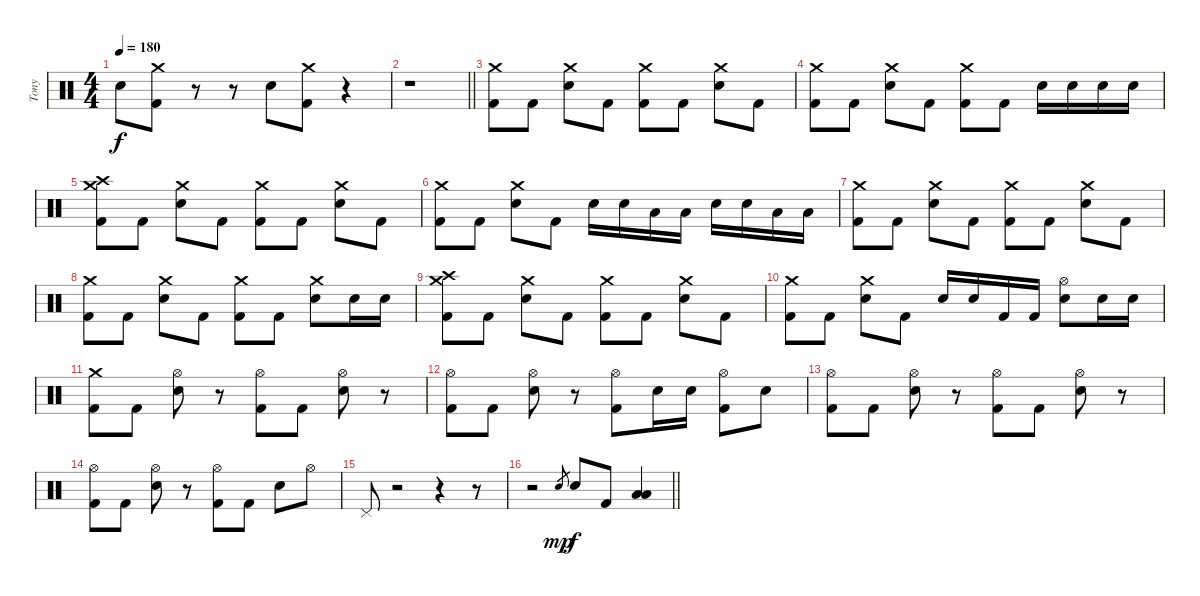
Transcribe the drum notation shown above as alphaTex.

\track ("Tony" "Tony") {instrument percussion}
\staff {score}
\articulation defaults
\ts (4 4)
\tempo 180
\clef neutral
\ks c "Electric Snare (hit)".8{dy f}
("Crash medium (hit)" "Kick (hit) 2").8 r.8 r.8 "Electric Snare (hit)".8 ("Crash medium (hit)" "Kick (hit) 2").8 r.4 |
\barLineRight lightlight
r.1 |
\section ("" "")
("Crash medium (hit)" "Kick (hit) 2").8 "Kick (hit) 2".8 ("Crash medium (hit)" "Electric Snare (hit)").8 "Kick (hit) 2".8 ("Crash medium (hit)" "Kick (hit) 2").8 "Kick (hit) 2".8 ("Crash medium (hit)" "Electric Snare (hit)").8 "Kick (hit) 2".8 |
("Crash medium (hit)" "Kick (hit) 2").8 "Kick (hit) 2".8 ("Crash medium (hit)" "Electric Snare (hit)").8 "Kick (hit) 2".8 ("Crash medium (hit)" "Kick (hit) 2").8 "Kick (hit) 2".8 "Electric Snare (hit)".16 "Electric Snare (hit)".16 "Electric Snare (hit)".16 "Electric Snare (hit)".16 |
("Crash medium (hit)" "Crash high (hit)" "Kick (hit) 2").8 "Kick (hit) 2".8 ("Crash medium (hit)" "Electric Snare (hit)").8 "Kick (hit) 2".8 ("Crash medium (hit)" "Kick (hit) 2").8 "Kick (hit) 2".8 ("Crash medium (hit)" "Electric Snare (hit)").8 "Kick (hit) 2".8 |
("Crash medium (hit)" "Kick (hit) 2").8 "Kick (hit) 2".8 ("Crash medium (hit)" "Electric Snare (hit)").8 "Kick (hit) 2".8 "Electric Snare (hit)".16 "Electric Snare (hit)".16 "Low Tom (hit)".16 "Low Tom (hit)".16 "Electric Snare (hit)".16 "Electric Snare (hit)".16 "Low Floor Tom (hit)".16 "Low Floor Tom (hit)".16 |
("Crash medium (hit)" "Kick (hit) 2").8 "Kick (hit) 2".8 ("Crash medium (hit)" "Electric Snare (hit)").8 "Kick (hit) 2".8 ("Crash medium (hit)" "Kick (hit) 2").8 "Kick (hit) 2".8 ("Crash medium (hit)" "Electric Snare (hit)").8 "Kick (hit) 2".8 |
("Crash medium (hit)" "Kick (hit) 2").8 "Kick (hit) 2".8 ("Crash medium (hit)" "Electric Snare (hit)").8 "Kick (hit) 2".8 ("Crash medium (hit)" "Kick (hit) 2").8 "Kick (hit) 2".8 ("Crash medium (hit)" "Electric Snare (hit)").8 "Electric Snare (hit)".16 "Electric Snare (hit)".16 |
("Crash medium (hit)" "Crash high (hit)" "Kick (hit) 2").8 "Kick (hit) 2".8 ("Crash medium (hit)" "Electric Snare (hit)").8 "Kick (hit) 2".8 ("Crash medium (hit)" "Kick (hit) 2").8 "Kick (hit) 2".8 ("Crash medium (hit)" "Electric Snare (hit)").8 "Kick (hit) 2".8 |
("Crash medium (hit)" "Kick (hit) 2").8 "Kick (hit) 2".8 ("Crash medium (hit)" "Electric Snare (hit)").8 "Kick (hit) 2".8 "Electric Snare (hit)".16 "Electric Snare (hit)".16 "Kick (hit) 2".16 "Kick (hit) 2".16 ("Hi-Hat (open)" "Electric Snare (hit)").8 "Electric Snare (hit)".16 "Electric Snare (hit)".16 |
("Crash medium (hit)" "Kick (hit) 2").8 "Kick (hit) 2".8 ("Hi-Hat (open)" "Electric Snare (hit)").8 r.8 ("Hi-Hat (open)" "Kick (hit) 2").8 "Kick (hit) 2".8 ("Hi-Hat (open)" "Electric Snare (hit)").8 r.8 |
("Hi-Hat (open)" "Kick (hit) 2").8 "Kick (hit) 2".8 ("Hi-Hat (open)" "Electric Snare (hit)").8 r.8 ("Hi-Hat (open)" "Kick (hit) 2").8 "Electric Snare (hit)".16 "Electric Snare (hit)".16 ("Hi-Hat (open)" "Kick (hit) 2").8 "Electric Snare (hit)".8 |
("Hi-Hat (open)" "Kick (hit) 2").8 "Kick (hit) 2".8 ("Hi-Hat (open)" "Electric Snare (hit)").8 r.8 ("Hi-Hat (open)" "Kick (hit) 2").8 "Kick (hit) 2".8 ("Hi-Hat (open)" "Electric Snare (hit)").8 r.8 |
("Hi-Hat (open)" "Kick (hit) 2").8 "Kick (hit) 2".8 ("Hi-Hat (open)" "Electric Snare (hit)").8 r.8 ("Hi-Hat (open)" "Kick (hit) 2").8 "Kick (hit) 2".8 "Electric Snare (hit)".8 "Hi-Hat (open)".8 |
"Pedal Hi-Hat (hit)".8 r.2 r.4 r.8 |
\barLineRight lightlight
r.2 "Electric Snare (hit)".8{gr dy mp} "Electric Snare (hit)".8{dy f} "Kick (hit) 2".8 ("Low Floor Tom (hit)" "Low Tom (hit)").4
